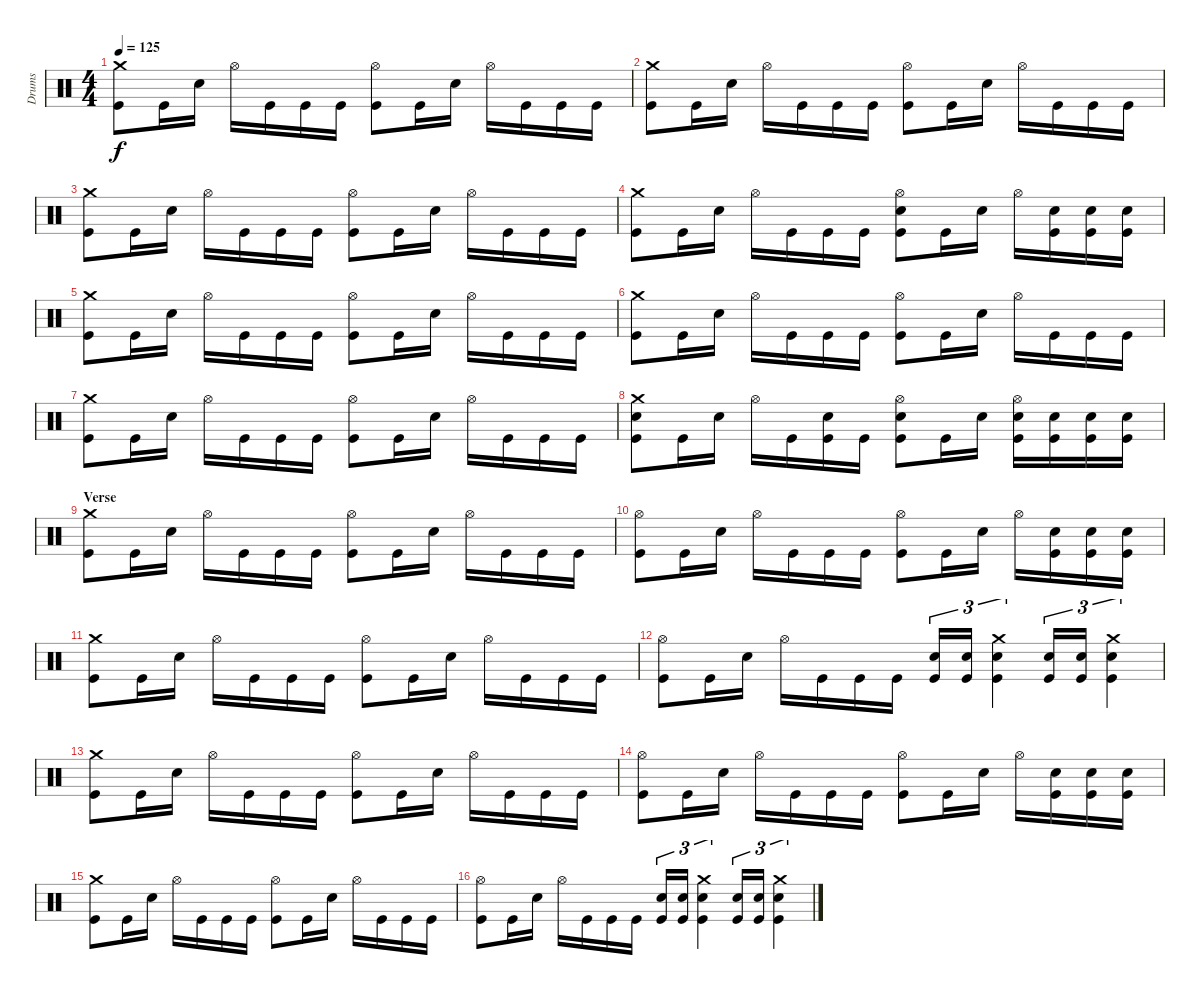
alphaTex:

\track ("Drums" "Drums") {instrument percussion}
\staff {score}
\articulation defaults
\ts (4 4)
\tempo 125
\clef neutral
\ks c
("Crash medium (hit)" "Kick (hit)").8{dy f} "Kick (hit)".16 "Electric Snare (hit)".16 "Hi-Hat (open)".16 "Kick (hit)".16 "Kick (hit)".16 "Kick (hit)".16 ("Hi-Hat (open)" "Kick (hit)").8 "Kick (hit)".16 "Electric Snare (hit)".16 "Hi-Hat (open)".16 "Kick (hit)".16 "Kick (hit)".16 "Kick (hit)".16 |
("Crash medium (hit)" "Kick (hit)").8 "Kick (hit)".16 "Electric Snare (hit)".16 "Hi-Hat (open)".16 "Kick (hit)".16 "Kick (hit)".16 "Kick (hit)".16 ("Hi-Hat (open)" "Kick (hit)").8 "Kick (hit)".16 "Electric Snare (hit)".16 "Hi-Hat (open)".16 "Kick (hit)".16 "Kick (hit)".16 "Kick (hit)".16 |
("Crash medium (hit)" "Kick (hit)").8 "Kick (hit)".16 "Electric Snare (hit)".16 "Hi-Hat (open)".16 "Kick (hit)".16 "Kick (hit)".16 "Kick (hit)".16 ("Hi-Hat (open)" "Kick (hit)").8 "Kick (hit)".16 "Electric Snare (hit)".16 "Hi-Hat (open)".16 "Kick (hit)".16 "Kick (hit)".16 "Kick (hit)".16 |
("Crash medium (hit)" "Kick (hit)").8 "Kick (hit)".16 "Electric Snare (hit)".16 "Hi-Hat (open)".16 "Kick (hit)".16 "Kick (hit)".16 "Kick (hit)".16 ("Hi-Hat (open)" "Electric Snare (hit)" "Kick (hit)").8 "Kick (hit)".16 "Electric Snare (hit)".16 "Hi-Hat (open)".16 ("Electric Snare (hit)" "Kick (hit)").16 ("Electric Snare (hit)" "Kick (hit)").16 ("Electric Snare (hit)" "Kick (hit)").16 |
("Crash medium (hit)" "Kick (hit)").8 "Kick (hit)".16 "Electric Snare (hit)".16 "Hi-Hat (open)".16 "Kick (hit)".16 "Kick (hit)".16 "Kick (hit)".16 ("Hi-Hat (open)" "Kick (hit)").8 "Kick (hit)".16 "Electric Snare (hit)".16 "Hi-Hat (open)".16 "Kick (hit)".16 "Kick (hit)".16 "Kick (hit)".16 |
("Crash medium (hit)" "Kick (hit)").8 "Kick (hit)".16 "Electric Snare (hit)".16 "Hi-Hat (open)".16 "Kick (hit)".16 "Kick (hit)".16 "Kick (hit)".16 ("Hi-Hat (open)" "Kick (hit)").8 "Kick (hit)".16 "Electric Snare (hit)".16 "Hi-Hat (open)".16 "Kick (hit)".16 "Kick (hit)".16 "Kick (hit)".16 |
("Crash medium (hit)" "Kick (hit)").8 "Kick (hit)".16 "Electric Snare (hit)".16 "Hi-Hat (open)".16 "Kick (hit)".16 "Kick (hit)".16 "Kick (hit)".16 ("Hi-Hat (open)" "Kick (hit)").8 "Kick (hit)".16 "Electric Snare (hit)".16 "Hi-Hat (open)".16 "Kick (hit)".16 "Kick (hit)".16 "Kick (hit)".16 |
("Crash medium (hit)" "Electric Snare (hit)" "Kick (hit)").8 "Kick (hit)".16 "Electric Snare (hit)".16 "Hi-Hat (open)".16 "Kick (hit)".16 ("Electric Snare (hit)" "Kick (hit)").16 "Kick (hit)".16 ("Hi-Hat (open)" "Electric Snare (hit)" "Kick (hit)").8 "Kick (hit)".16 "Electric Snare (hit)".16 ("Hi-Hat (open)" "Electric Snare (hit)" "Kick (hit)").16 ("Electric Snare (hit)" "Kick (hit)").16 ("Electric Snare (hit)" "Kick (hit)").16 ("Electric Snare (hit)" "Kick (hit)").16 |
\section ("" "Verse")
("Crash medium (hit)" "Kick (hit)").8 "Kick (hit)".16 "Electric Snare (hit)".16 "Hi-Hat (open)".16 "Kick (hit)".16 "Kick (hit)".16 "Kick (hit)".16 ("Hi-Hat (open)" "Kick (hit)").8 "Kick (hit)".16 "Electric Snare (hit)".16 "Hi-Hat (open)".16 "Kick (hit)".16 "Kick (hit)".16 "Kick (hit)".16 |
("Hi-Hat (open)" "Kick (hit)").8 "Kick (hit)".16 "Electric Snare (hit)".16 "Hi-Hat (open)".16 "Kick (hit)".16 "Kick (hit)".16 "Kick (hit)".16 ("Hi-Hat (open)" "Kick (hit)").8 "Kick (hit)".16 "Electric Snare (hit)".16 "Hi-Hat (open)".16 ("Electric Snare (hit)" "Kick (hit)").16 ("Electric Snare (hit)" "Kick (hit)").16 ("Electric Snare (hit)" "Kick (hit)").16 |
("Crash medium (hit)" "Kick (hit)").8 "Kick (hit)".16 "Electric Snare (hit)".16 "Hi-Hat (open)".16 "Kick (hit)".16 "Kick (hit)".16 "Kick (hit)".16 ("Hi-Hat (open)" "Kick (hit)").8 "Kick (hit)".16 "Electric Snare (hit)".16 "Hi-Hat (open)".16 "Kick (hit)".16 "Kick (hit)".16 "Kick (hit)".16 |
("Hi-Hat (open)" "Kick (hit)").8 "Kick (hit)".16 "Electric Snare (hit)".16 "Hi-Hat (open)".16 "Kick (hit)".16 "Kick (hit)".16 "Kick (hit)".16 ("Electric Snare (hit)" "Kick (hit)").16{tu (3 2)} ("Electric Snare (hit)" "Kick (hit)").16{tu (3 2)} ("Crash medium (hit)" "Electric Snare (hit)" "Kick (hit)").4{tu (3 2)} ("Electric Snare (hit)" "Kick (hit)").16{tu (3 2)} ("Electric Snare (hit)" "Kick (hit)").16{tu (3 2)} ("Crash medium (hit)" "Electric Snare (hit)" "Kick (hit)").4{tu (3 2)} |
("Crash medium (hit)" "Kick (hit)").8 "Kick (hit)".16 "Electric Snare (hit)".16 "Hi-Hat (open)".16 "Kick (hit)".16 "Kick (hit)".16 "Kick (hit)".16 ("Hi-Hat (open)" "Kick (hit)").8 "Kick (hit)".16 "Electric Snare (hit)".16 "Hi-Hat (open)".16 "Kick (hit)".16 "Kick (hit)".16 "Kick (hit)".16 |
("Hi-Hat (open)" "Kick (hit)").8 "Kick (hit)".16 "Electric Snare (hit)".16 "Hi-Hat (open)".16 "Kick (hit)".16 "Kick (hit)".16 "Kick (hit)".16 ("Hi-Hat (open)" "Kick (hit)").8 "Kick (hit)".16 "Electric Snare (hit)".16 "Hi-Hat (open)".16 ("Electric Snare (hit)" "Kick (hit)").16 ("Electric Snare (hit)" "Kick (hit)").16 ("Electric Snare (hit)" "Kick (hit)").16 |
("Crash medium (hit)" "Kick (hit)").8 "Kick (hit)".16 "Electric Snare (hit)".16 "Hi-Hat (open)".16 "Kick (hit)".16 "Kick (hit)".16 "Kick (hit)".16 ("Hi-Hat (open)" "Kick (hit)").8 "Kick (hit)".16 "Electric Snare (hit)".16 "Hi-Hat (open)".16 "Kick (hit)".16 "Kick (hit)".16 "Kick (hit)".16 |
("Hi-Hat (open)" "Kick (hit)").8 "Kick (hit)".16 "Electric Snare (hit)".16 "Hi-Hat (open)".16 "Kick (hit)".16 "Kick (hit)".16 "Kick (hit)".16 ("Electric Snare (hit)" "Kick (hit)").16{tu (3 2)} ("Electric Snare (hit)" "Kick (hit)").16{tu (3 2)} ("Crash medium (hit)" "Electric Snare (hit)" "Kick (hit)").4{tu (3 2)} ("Electric Snare (hit)" "Kick (hit)").16{tu (3 2)} ("Electric Snare (hit)" "Kick (hit)").16{tu (3 2)} ("Crash medium (hit)" "Electric Snare (hit)" "Kick (hit)").4{tu (3 2)}
